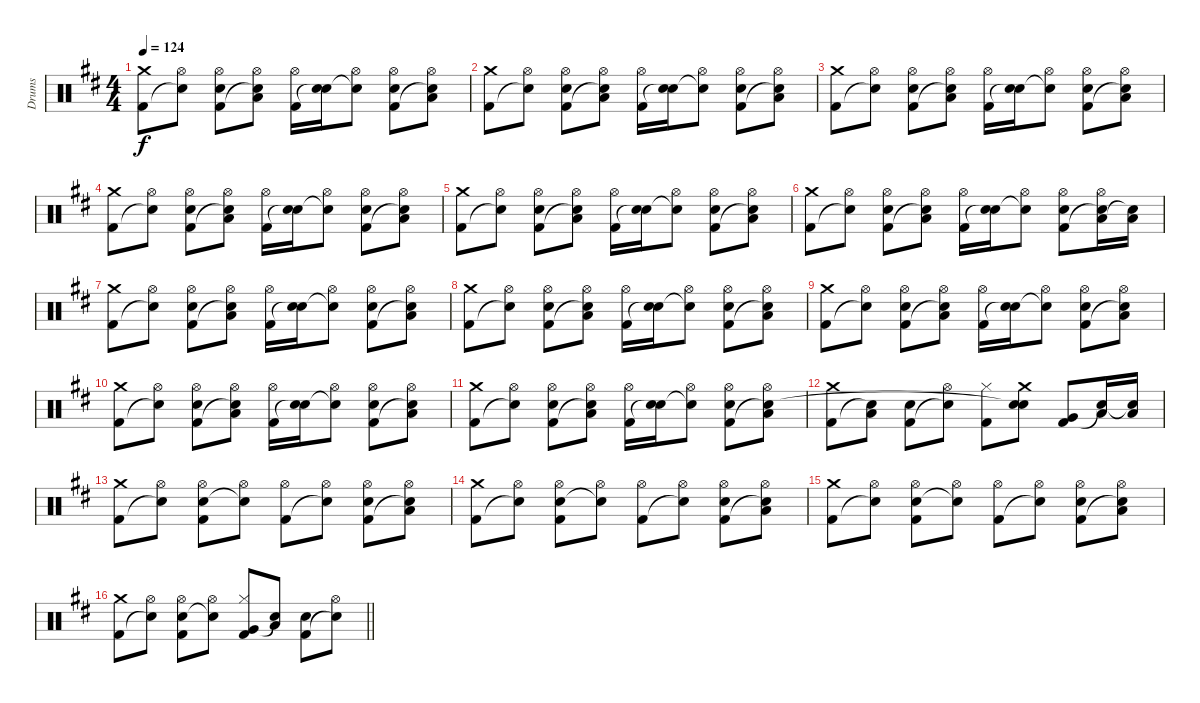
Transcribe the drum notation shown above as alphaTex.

\track ("Drums" "Drums") {instrument percussion}
\staff {score}
\articulation defaults
\ts (4 4)
\tempo 124
\clef neutral
\ks d
("Crash medium (hit)" "Kick (hit) 2").8{dy f} ("Hi-Hat (open)" "Snare (hit)"{t}).8 ("Hi-Hat (open)" "Electric Snare (hit)" "Kick (hit) 2").8 ("Hi-Hat (open)" "Low Tom (hit)" "Snare (hit)"{t}).8 ("Hi-Hat (open)" "Kick (hit) 2").16 ("Electric Snare (hit)" "Snare (hit)"{t}).16 ("Hi-Hat (open)" "Snare (hit)"{t}).8 ("Hi-Hat (open)" "Electric Snare (hit)" "Kick (hit) 2").8 ("Hi-Hat (open)" "Low Floor Tom (hit)" "Snare (hit)"{t}).8 |
("Crash medium (hit)" "Kick (hit) 2").8 ("Hi-Hat (open)" "Snare (hit)"{t}).8 ("Hi-Hat (open)" "Electric Snare (hit)" "Kick (hit) 2").8 ("Hi-Hat (open)" "Low Tom (hit)" "Snare (hit)"{t}).8 ("Hi-Hat (open)" "Kick (hit) 2").16 ("Electric Snare (hit)" "Snare (hit)"{t}).16 ("Hi-Hat (open)" "Snare (hit)"{t}).8 ("Hi-Hat (open)" "Electric Snare (hit)" "Kick (hit) 2").8 ("Hi-Hat (open)" "Low Floor Tom (hit)" "Snare (hit)"{t}).8 |
("Crash medium (hit)" "Kick (hit) 2").8 ("Hi-Hat (open)" "Snare (hit)"{t}).8 ("Hi-Hat (open)" "Electric Snare (hit)" "Kick (hit) 2").8 ("Hi-Hat (open)" "Low Tom (hit)" "Snare (hit)"{t}).8 ("Hi-Hat (open)" "Kick (hit) 2").16 ("Electric Snare (hit)" "Snare (hit)"{t}).16 ("Hi-Hat (open)" "Snare (hit)"{t}).8 ("Hi-Hat (open)" "Electric Snare (hit)" "Kick (hit) 2").8 ("Hi-Hat (open)" "Low Floor Tom (hit)" "Snare (hit)"{t}).8 |
("Crash medium (hit)" "Kick (hit) 2").8 ("Hi-Hat (open)" "Snare (hit)"{t}).8 ("Hi-Hat (open)" "Electric Snare (hit)" "Kick (hit) 2").8 ("Hi-Hat (open)" "Low Tom (hit)" "Snare (hit)"{t}).8 ("Hi-Hat (open)" "Kick (hit) 2").16 ("Electric Snare (hit)" "Snare (hit)"{t}).16 ("Hi-Hat (open)" "Snare (hit)"{t}).8 ("Hi-Hat (open)" "Electric Snare (hit)" "Kick (hit) 2").8 ("Hi-Hat (open)" "Low Floor Tom (hit)" "Snare (hit)"{t}).8 |
("Crash medium (hit)" "Kick (hit) 2").8 ("Hi-Hat (open)" "Snare (hit)"{t}).8 ("Hi-Hat (open)" "Electric Snare (hit)" "Kick (hit) 2").8 ("Hi-Hat (open)" "Low Tom (hit)" "Snare (hit)"{t}).8 ("Hi-Hat (open)" "Kick (hit) 2").16 ("Electric Snare (hit)" "Snare (hit)"{t}).16 ("Hi-Hat (open)" "Snare (hit)"{t}).8 ("Hi-Hat (open)" "Electric Snare (hit)" "Kick (hit) 2").8 ("Hi-Hat (open)" "Low Floor Tom (hit)" "Snare (hit)"{t}).8 |
("Crash medium (hit)" "Kick (hit) 2").8 ("Hi-Hat (open)" "Snare (hit)"{t}).8 ("Hi-Hat (open)" "Electric Snare (hit)" "Kick (hit) 2").8 ("Hi-Hat (open)" "Low Tom (hit)" "Snare (hit)"{t}).8 ("Hi-Hat (open)" "Kick (hit) 2").16 ("Electric Snare (hit)" "Snare (hit)"{t}).16 ("Hi-Hat (open)" "Snare (hit)"{t}).8 ("Hi-Hat (open)" "Electric Snare (hit)" "Kick (hit) 2").8 ("Hi-Hat (open)" "Low Floor Tom (hit)" "Snare (hit)"{t}).16 ("Low Floor Tom (hit)" "Snare (hit)"{t}).16 |
("Crash medium (hit)" "Kick (hit) 2").8 ("Hi-Hat (open)" "Snare (hit)"{t}).8 ("Hi-Hat (open)" "Electric Snare (hit)" "Kick (hit) 2").8 ("Hi-Hat (open)" "Low Tom (hit)" "Snare (hit)"{t}).8 ("Hi-Hat (open)" "Kick (hit) 2").16 ("Electric Snare (hit)" "Snare (hit)"{t}).16 ("Hi-Hat (open)" "Snare (hit)"{t}).8 ("Hi-Hat (open)" "Electric Snare (hit)" "Kick (hit) 2").8 ("Hi-Hat (open)" "Low Floor Tom (hit)" "Snare (hit)"{t}).8 |
("Crash medium (hit)" "Kick (hit) 2").8 ("Hi-Hat (open)" "Snare (hit)"{t}).8 ("Hi-Hat (open)" "Electric Snare (hit)" "Kick (hit) 2").8 ("Hi-Hat (open)" "Low Tom (hit)" "Snare (hit)"{t}).8 ("Hi-Hat (open)" "Kick (hit) 2").16 ("Electric Snare (hit)" "Snare (hit)"{t}).16 ("Hi-Hat (open)" "Snare (hit)"{t}).8 ("Hi-Hat (open)" "Electric Snare (hit)" "Kick (hit) 2").8 ("Hi-Hat (open)" "Low Floor Tom (hit)" "Snare (hit)"{t}).8 |
("Crash medium (hit)" "Kick (hit) 2").8 ("Hi-Hat (open)" "Snare (hit)"{t}).8 ("Hi-Hat (open)" "Electric Snare (hit)" "Kick (hit) 2").8 ("Hi-Hat (open)" "Low Tom (hit)" "Snare (hit)"{t}).8 ("Hi-Hat (open)" "Kick (hit) 2").16 ("Electric Snare (hit)" "Snare (hit)"{t}).16 ("Hi-Hat (open)" "Snare (hit)"{t}).8 ("Hi-Hat (open)" "Electric Snare (hit)" "Kick (hit) 2").8 ("Hi-Hat (open)" "Low Floor Tom (hit)" "Snare (hit)"{t}).8 |
("Crash medium (hit)" "Kick (hit) 2").8 ("Hi-Hat (open)" "Snare (hit)"{t}).8 ("Hi-Hat (open)" "Electric Snare (hit)" "Kick (hit) 2").8 ("Hi-Hat (open)" "Low Tom (hit)" "Snare (hit)"{t}).8 ("Hi-Hat (open)" "Kick (hit) 2").16 ("Electric Snare (hit)" "Snare (hit)"{t}).16 ("Hi-Hat (open)" "Snare (hit)"{t}).8 ("Hi-Hat (open)" "Electric Snare (hit)" "Kick (hit) 2").8 ("Hi-Hat (open)" "Low Floor Tom (hit)" "Snare (hit)"{t}).8 |
("Crash medium (hit)" "Kick (hit) 2").8 ("Hi-Hat (open)" "Snare (hit)"{t}).8 ("Hi-Hat (open)" "Electric Snare (hit)" "Kick (hit) 2").8 ("Hi-Hat (open)" "Low Tom (hit)" "Snare (hit)"{t}).8 ("Hi-Hat (open)" "Kick (hit) 2").16 ("Electric Snare (hit)" "Snare (hit)"{t}).16 ("Hi-Hat (open)" "Snare (hit)"{t}).8 ("Hi-Hat (open)" "Electric Snare (hit)" "Kick (hit) 2").8 ("Hi-Hat (open)" "Low Floor Tom (hit)" "Snare (hit)"{t}).8 |
("Crash medium (hit)" "Kick (hit) 2").8 ("Low Tom (hit)" "Snare (hit)"{t}).8 ("Electric Snare (hit)" "Kick (hit) 2").8 ("Hi-Hat (open)" "Snare (hit)"{t}).8 ("Hi-Hat (closed)" "Kick (hit) 2").8 ("Crash medium (hit)" "Electric Snare (hit)" "Snare (hit)"{t}).8 ("Very Low Tom (hit)" "Kick (hit) 2").8 ("Low Floor Tom (hit)" "Snare (hit)"{t}).16 ("Low Floor Tom (hit)" "Snare (hit)"{t}).16 |
("Crash medium (hit)" "Kick (hit) 2").8 ("Hi-Hat (open)" "Snare (hit)"{t}).8 ("Hi-Hat (open)" "Electric Snare (hit)" "Kick (hit) 2").8 ("Hi-Hat (open)" "Snare (hit)"{t}).8 ("Hi-Hat (open)" "Kick (hit) 2").8 ("Hi-Hat (open)" "Snare (hit)"{t}).8 ("Hi-Hat (open)" "Electric Snare (hit)" "Kick (hit) 2").8 ("Hi-Hat (open)" "Low Floor Tom (hit)" "Snare (hit)"{t}).8 |
("Crash medium (hit)" "Kick (hit) 2").8 ("Hi-Hat (open)" "Snare (hit)"{t}).8 ("Hi-Hat (open)" "Electric Snare (hit)" "Kick (hit) 2").8 ("Hi-Hat (open)" "Snare (hit)"{t}).8 ("Hi-Hat (open)" "Kick (hit) 2").8 ("Hi-Hat (open)" "Snare (hit)"{t}).8 ("Hi-Hat (open)" "Electric Snare (hit)" "Kick (hit) 2").8 ("Hi-Hat (open)" "Low Floor Tom (hit)" "Snare (hit)"{t}).8 |
("Crash medium (hit)" "Kick (hit) 2").8 ("Hi-Hat (open)" "Snare (hit)"{t}).8 ("Hi-Hat (open)" "Electric Snare (hit)" "Kick (hit) 2").8 ("Hi-Hat (open)" "Snare (hit)"{t}).8 ("Hi-Hat (open)" "Kick (hit) 2").8 ("Hi-Hat (open)" "Snare (hit)"{t}).8 ("Hi-Hat (open)" "Electric Snare (hit)" "Kick (hit) 2").8 ("Hi-Hat (open)" "Low Floor Tom (hit)" "Snare (hit)"{t}).8 |
\barLineRight lightlight
("Crash medium (hit)" "Kick (hit) 2").8 ("Hi-Hat (open)" "Snare (hit)"{t}).8 ("Hi-Hat (open)" "Electric Snare (hit)" "Kick (hit) 2").8 ("Hi-Hat (open)" "Snare (hit)"{t}).8 ("Hi-Hat (closed)" "Very Low Tom (hit)" "Kick (hit) 2").8 ("Low Floor Tom (hit)" "Snare (hit)"{t}).8 ("Electric Snare (hit)" "Kick (hit) 2").8 ("Hi-Hat (open)" "Snare (hit)"{t}).8
